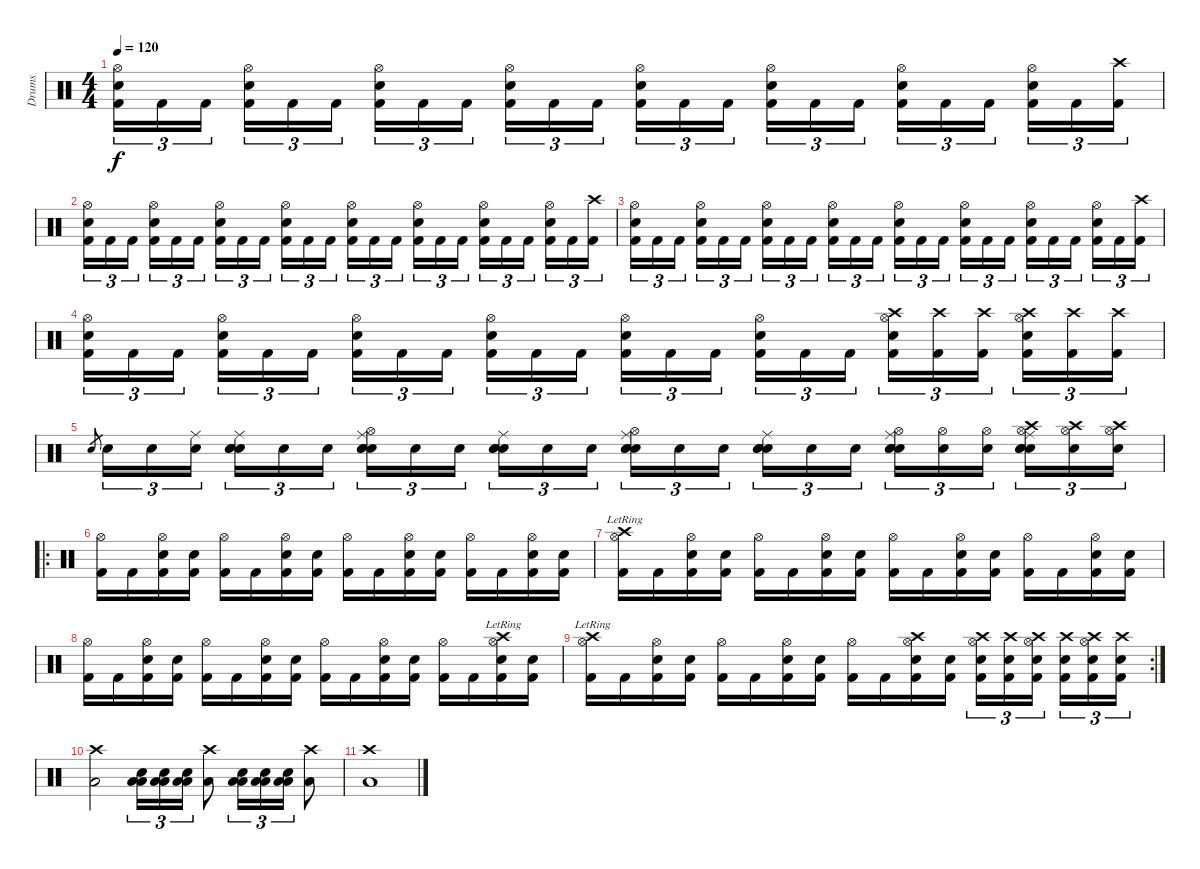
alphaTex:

\track ("Drums" "Drums") {instrument percussion}
\staff {score}
\articulation defaults
\ts (4 4)
\tempo 120
\clef neutral
\ks c
("Hi-Hat (open)" "Snare (hit) 2" "Kick (hit) 2").16{tu (3 2) dy f} "Kick (hit) 2".16{tu (3 2)} "Kick (hit) 2".16{tu (3 2)} ("Hi-Hat (open)" "Electric Snare (hit)" "Kick (hit) 2").16{tu (3 2)} "Kick (hit) 2".16{tu (3 2)} "Kick (hit) 2".16{tu (3 2)} ("Hi-Hat (open)" "Snare (hit) 2" "Kick (hit) 2").16{tu (3 2)} "Kick (hit) 2".16{tu (3 2)} "Kick (hit) 2".16{tu (3 2)} ("Hi-Hat (open)" "Electric Snare (hit)" "Kick (hit) 2").16{tu (3 2)} "Kick (hit) 2".16{tu (3 2)} "Kick (hit) 2".16{tu (3 2)} ("Hi-Hat (open)" "Snare (hit) 2" "Kick (hit) 2").16{tu (3 2)} "Kick (hit) 2".16{tu (3 2)} "Kick (hit) 2".16{tu (3 2)} ("Hi-Hat (open)" "Electric Snare (hit)" "Kick (hit) 2").16{tu (3 2)} "Kick (hit) 2".16{tu (3 2)} "Kick (hit) 2".16{tu (3 2)} ("Hi-Hat (open)" "Snare (hit) 2" "Kick (hit) 2").16{tu (3 2)} "Kick (hit) 2".16{tu (3 2)} "Kick (hit) 2".16{tu (3 2)} ("Hi-Hat (open)" "Electric Snare (hit)" "Kick (hit) 2").16{tu (3 2)} "Kick (hit) 2".16{tu (3 2)} ("Crash high (hit)" "Kick (hit) 2").16{tu (3 2)} |
("Hi-Hat (open)" "Snare (hit) 2" "Kick (hit) 2").16{tu (3 2)} "Kick (hit) 2".16{tu (3 2)} "Kick (hit) 2".16{tu (3 2)} ("Hi-Hat (open)" "Electric Snare (hit)" "Kick (hit) 2").16{tu (3 2)} "Kick (hit) 2".16{tu (3 2)} "Kick (hit) 2".16{tu (3 2)} ("Hi-Hat (open)" "Snare (hit) 2" "Kick (hit) 2").16{tu (3 2)} "Kick (hit) 2".16{tu (3 2)} "Kick (hit) 2".16{tu (3 2)} ("Hi-Hat (open)" "Electric Snare (hit)" "Kick (hit) 2").16{tu (3 2)} "Kick (hit) 2".16{tu (3 2)} "Kick (hit) 2".16{tu (3 2)} ("Hi-Hat (open)" "Snare (hit) 2" "Kick (hit) 2").16{tu (3 2)} "Kick (hit) 2".16{tu (3 2)} "Kick (hit) 2".16{tu (3 2)} ("Hi-Hat (open)" "Electric Snare (hit)" "Kick (hit) 2").16{tu (3 2)} "Kick (hit) 2".16{tu (3 2)} "Kick (hit) 2".16{tu (3 2)} ("Hi-Hat (open)" "Snare (hit) 2" "Kick (hit) 2").16{tu (3 2)} "Kick (hit) 2".16{tu (3 2)} "Kick (hit) 2".16{tu (3 2)} ("Hi-Hat (open)" "Electric Snare (hit)" "Kick (hit) 2").16{tu (3 2)} "Kick (hit) 2".16{tu (3 2)} ("Crash high (hit)" "Kick (hit) 2").16{tu (3 2)} |
("Hi-Hat (open)" "Snare (hit) 2" "Kick (hit) 2").16{tu (3 2)} "Kick (hit) 2".16{tu (3 2)} "Kick (hit) 2".16{tu (3 2)} ("Hi-Hat (open)" "Electric Snare (hit)" "Kick (hit) 2").16{tu (3 2)} "Kick (hit) 2".16{tu (3 2)} "Kick (hit) 2".16{tu (3 2)} ("Hi-Hat (open)" "Snare (hit) 2" "Kick (hit) 2").16{tu (3 2)} "Kick (hit) 2".16{tu (3 2)} "Kick (hit) 2".16{tu (3 2)} ("Hi-Hat (open)" "Electric Snare (hit)" "Kick (hit) 2").16{tu (3 2)} "Kick (hit) 2".16{tu (3 2)} "Kick (hit) 2".16{tu (3 2)} ("Hi-Hat (open)" "Snare (hit) 2" "Kick (hit) 2").16{tu (3 2)} "Kick (hit) 2".16{tu (3 2)} "Kick (hit) 2".16{tu (3 2)} ("Hi-Hat (open)" "Electric Snare (hit)" "Kick (hit) 2").16{tu (3 2)} "Kick (hit) 2".16{tu (3 2)} "Kick (hit) 2".16{tu (3 2)} ("Hi-Hat (open)" "Snare (hit) 2" "Kick (hit) 2").16{tu (3 2)} "Kick (hit) 2".16{tu (3 2)} "Kick (hit) 2".16{tu (3 2)} ("Hi-Hat (open)" "Electric Snare (hit)" "Kick (hit) 2").16{tu (3 2)} "Kick (hit) 2".16{tu (3 2)} ("Crash high (hit)" "Kick (hit) 2").16{tu (3 2)} |
("Hi-Hat (open)" "Snare (hit) 2" "Kick (hit) 2").16{tu (3 2)} "Kick (hit) 2".16{tu (3 2)} "Kick (hit) 2".16{tu (3 2)} ("Hi-Hat (open)" "Electric Snare (hit)" "Kick (hit) 2").16{tu (3 2)} "Kick (hit) 2".16{tu (3 2)} "Kick (hit) 2".16{tu (3 2)} ("Hi-Hat (open)" "Snare (hit) 2" "Kick (hit) 2").16{tu (3 2)} "Kick (hit) 2".16{tu (3 2)} "Kick (hit) 2".16{tu (3 2)} ("Hi-Hat (open)" "Electric Snare (hit)" "Kick (hit) 2").16{tu (3 2)} "Kick (hit) 2".16{tu (3 2)} "Kick (hit) 2".16{tu (3 2)} ("Hi-Hat (open)" "Snare (hit) 2" "Kick (hit) 2").16{tu (3 2)} "Kick (hit) 2".16{tu (3 2)} "Kick (hit) 2".16{tu (3 2)} ("Hi-Hat (open)" "Electric Snare (hit)" "Kick (hit) 2").16{tu (3 2)} "Kick (hit) 2".16{tu (3 2)} "Kick (hit) 2".16{tu (3 2)} ("Hi-Hat (open)" "Crash high (hit)" "Snare (hit) 2" "Kick (hit) 2").16{tu (3 2)} ("Crash high (hit)" "Kick (hit) 2").16{tu (3 2)} ("Crash high (hit)" "Kick (hit) 2").16{tu (3 2)} ("Hi-Hat (open)" "Crash high (hit)" "Electric Snare (hit)" "Kick (hit) 2").16{tu (3 2)} ("Crash high (hit)" "Kick (hit) 2").16{tu (3 2)} ("Crash high (hit)" "Kick (hit) 2").16{tu (3 2)} |
"Snare (hit) 2".8{gr} "Snare (hit) 2".16{tu (3 2)} "Snare (hit) 2".16{tu (3 2)} ("Ride (middle)" "Snare (hit) 2").16{tu (3 2)} ("Ride (middle)" "Snare (hit) 2" "Snare (hit) 2" "Snare (hit) 2").16{tu (3 2)} "Snare (hit) 2".16{tu (3 2)} "Snare (hit) 2".16{tu (3 2)} ("Hi-Hat (open)" "Ride (middle)" "Snare (hit) 2" "Snare (hit) 2" "Snare (hit) 2").16{tu (3 2)} "Snare (hit) 2".16{tu (3 2)} "Snare (hit) 2".16{tu (3 2)} ("Ride (middle)" "Snare (hit) 2" "Snare (hit) 2" "Snare (hit) 2").16{tu (3 2)} "Snare (hit) 2".16{tu (3 2)} "Snare (hit) 2".16{tu (3 2)} ("Hi-Hat (open)" "Ride (middle)" "Snare (hit) 2" "Snare (hit) 2" "Snare (hit) 2").16{tu (3 2)} "Snare (hit) 2".16{tu (3 2)} "Snare (hit) 2".16{tu (3 2)} ("Ride (middle)" "Snare (hit) 2" "Snare (hit) 2" "Snare (hit) 2").16{tu (3 2)} "Snare (hit) 2".16{tu (3 2)} "Snare (hit) 2".16{tu (3 2)} ("Hi-Hat (open)" "Ride (middle)" "Snare (hit) 2" "Snare (hit) 2" "Snare (hit) 2").16{tu (3 2)} ("Hi-Hat (open)" "Snare (hit) 2").16{tu (3 2)} ("Hi-Hat (open)" "Snare (hit) 2").16{tu (3 2)} ("Hi-Hat (open)" "Ride (middle)" "Snare (hit) 2" "Snare (hit) 2" "Snare (hit) 2" "Crash high (hit)").16{tu (3 2)} ("Hi-Hat (open)" "Snare (hit) 2" "Crash high (hit)").16{tu (3 2)} ("Hi-Hat (open)" "Snare (hit) 2" "Crash high (hit)").16{tu (3 2)} |
\ro
("Hi-Hat (open)" "Kick (hit) 2").16 "Kick (hit) 2".16 ("Hi-Hat (open)" "Snare (hit) 2" "Kick (hit) 2").16 ("Snare (hit) 2" "Kick (hit) 2").16 ("Hi-Hat (open)" "Kick (hit) 2").16 "Kick (hit) 2".16 ("Hi-Hat (open)" "Snare (hit) 2" "Kick (hit) 2").16 ("Snare (hit) 2" "Kick (hit) 2").16 ("Hi-Hat (open)" "Kick (hit) 2").16 "Kick (hit) 2".16 ("Hi-Hat (open)" "Snare (hit) 2" "Kick (hit) 2").16 ("Snare (hit) 2" "Kick (hit) 2").16 ("Hi-Hat (open)" "Kick (hit) 2").16 "Kick (hit) 2".16 ("Hi-Hat (open)" "Snare (hit) 2" "Kick (hit) 2").16 ("Snare (hit) 2" "Kick (hit) 2").16 |
("Crash high (hit)"{lr} "Hi-Hat (open)" "Kick (hit) 2").16 "Kick (hit) 2".16 ("Hi-Hat (open)" "Snare (hit) 2" "Kick (hit) 2").16 ("Snare (hit) 2" "Kick (hit) 2").16 ("Hi-Hat (open)" "Kick (hit) 2").16 "Kick (hit) 2".16 ("Hi-Hat (open)" "Snare (hit) 2" "Kick (hit) 2").16 ("Snare (hit) 2" "Kick (hit) 2").16 ("Hi-Hat (open)" "Kick (hit) 2").16 "Kick (hit) 2".16 ("Hi-Hat (open)" "Snare (hit) 2" "Kick (hit) 2").16 ("Snare (hit) 2" "Kick (hit) 2").16 ("Hi-Hat (open)" "Kick (hit) 2").16 "Kick (hit) 2".16 ("Hi-Hat (open)" "Snare (hit) 2" "Kick (hit) 2").16 ("Snare (hit) 2" "Kick (hit) 2").16 |
("Hi-Hat (open)" "Kick (hit) 2").16 "Kick (hit) 2".16 ("Hi-Hat (open)" "Snare (hit) 2" "Kick (hit) 2").16 ("Snare (hit) 2" "Kick (hit) 2").16 ("Hi-Hat (open)" "Kick (hit) 2").16 "Kick (hit) 2".16 ("Hi-Hat (open)" "Snare (hit) 2" "Kick (hit) 2").16 ("Snare (hit) 2" "Kick (hit) 2").16 ("Hi-Hat (open)" "Kick (hit) 2").16 "Kick (hit) 2".16 ("Hi-Hat (open)" "Snare (hit) 2" "Kick (hit) 2").16 ("Snare (hit) 2" "Kick (hit) 2").16 ("Hi-Hat (open)" "Kick (hit) 2").16 "Kick (hit) 2".16 ("Crash high (hit)"{lr} "Hi-Hat (open)" "Snare (hit) 2" "Kick (hit) 2").16 ("Snare (hit) 2" "Kick (hit) 2").16 |
\rc 2
("Crash high (hit)"{lr} "Hi-Hat (open)" "Kick (hit) 2").16 "Kick (hit) 2".16 ("Hi-Hat (open)" "Snare (hit) 2" "Kick (hit) 2").16 ("Snare (hit) 2" "Kick (hit) 2").16 ("Hi-Hat (open)" "Kick (hit) 2").16 "Kick (hit) 2".16 ("Hi-Hat (open)" "Snare (hit) 2" "Kick (hit) 2").16 ("Snare (hit) 2" "Kick (hit) 2").16 ("Hi-Hat (open)" "Kick (hit) 2").16 "Kick (hit) 2".16 ("Crash high (hit)" "Hi-Hat (open)" "Snare (hit) 2" "Kick (hit) 2").16 ("Snare (hit) 2" "Kick (hit) 2").16 ("Crash high (hit)" "Hi-Hat (open)" "Snare (hit) 2" "Kick (hit) 2").16{tu (3 2)} ("Crash high (hit)" "Snare (hit) 2" "Kick (hit) 2").16{tu (3 2)} ("Crash high (hit)" "Hi-Hat (open)" "Snare (hit) 2" "Kick (hit) 2").16{tu (3 2)} ("Crash high (hit)" "Snare (hit) 2" "Kick (hit) 2").16{tu (3 2)} ("Crash high (hit)" "Hi-Hat (open)" "Snare (hit) 2" "Kick (hit) 2").16{tu (3 2)} ("Crash high (hit)" "Snare (hit) 2" "Kick (hit) 2").16{tu (3 2)} |
("Crash high (hit)" "Low Floor Tom (hit)").2 ("Snare (hit) 2" "Low Floor Tom (hit)" "Low Tom (hit)").16{tu (3 2)} ("Snare (hit) 2" "Low Floor Tom (hit)" "Low Tom (hit)").16{tu (3 2)} ("Snare (hit) 2" "Low Floor Tom (hit)" "Low Tom (hit)").16{tu (3 2)} ("Crash high (hit)" "Low Floor Tom (hit)").8 ("Snare (hit) 2" "Low Floor Tom (hit)" "Low Tom (hit)").16{tu (3 2)} ("Snare (hit) 2" "Low Floor Tom (hit)" "Low Tom (hit)").16{tu (3 2)} ("Snare (hit) 2" "Low Floor Tom (hit)" "Low Tom (hit)").16{tu (3 2)} ("Crash high (hit)" "Low Floor Tom (hit)").8 |
("Crash high (hit)" "Low Floor Tom (hit)").1
